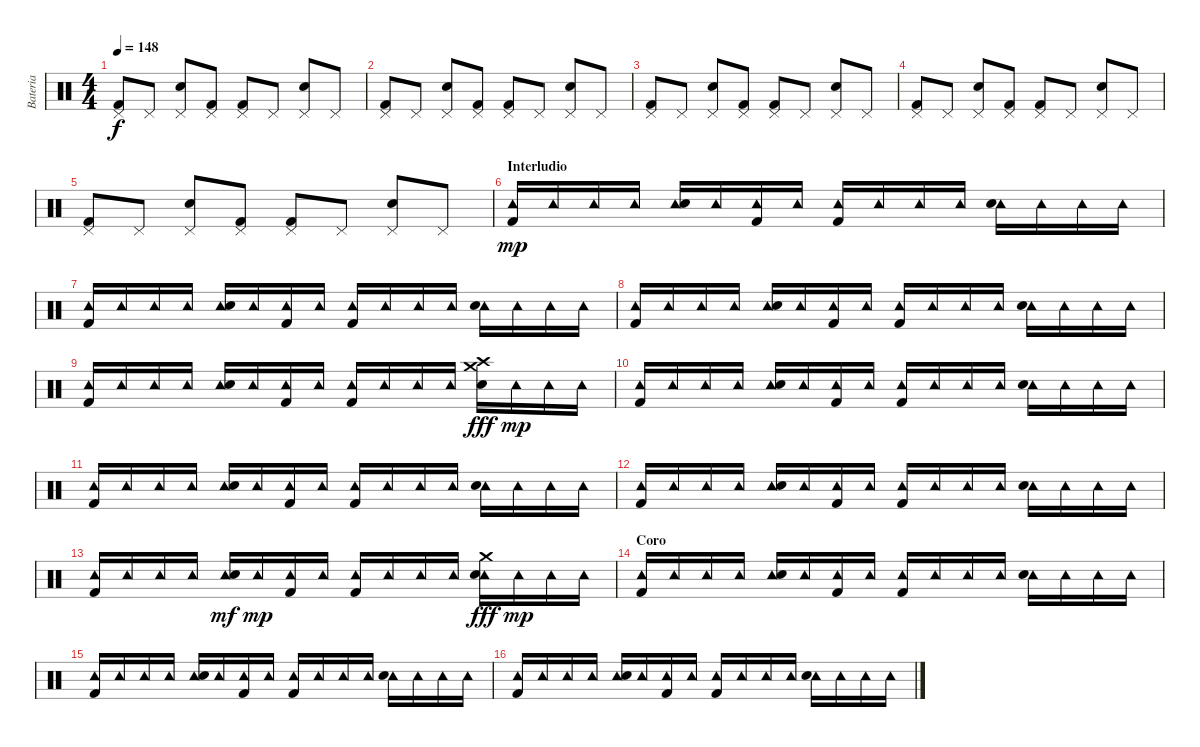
\track ("Bateria" "Bateria") {instrument percussion}
\staff {score}
\articulation defaults
\ts (4 4)
\tempo 148
\clef neutral
\ks c
("Pedal Hi-Hat (hit)" "Kick (hit) 2").8{dy f} "Pedal Hi-Hat (hit)".8 ("Pedal Hi-Hat (hit)" "Snare (hit) 2").8 ("Pedal Hi-Hat (hit)" "Kick (hit) 2").8 ("Pedal Hi-Hat (hit)" "Kick (hit) 2").8 "Pedal Hi-Hat (hit)".8 ("Pedal Hi-Hat (hit)" "Snare (hit) 2").8 "Pedal Hi-Hat (hit)".8 |
("Pedal Hi-Hat (hit)" "Kick (hit) 2").8 "Pedal Hi-Hat (hit)".8 ("Pedal Hi-Hat (hit)" "Snare (hit) 2").8 ("Pedal Hi-Hat (hit)" "Kick (hit) 2").8 ("Pedal Hi-Hat (hit)" "Kick (hit) 2").8 "Pedal Hi-Hat (hit)".8 ("Pedal Hi-Hat (hit)" "Snare (hit) 2").8 "Pedal Hi-Hat (hit)".8 |
("Pedal Hi-Hat (hit)" "Kick (hit) 2").8 "Pedal Hi-Hat (hit)".8 ("Pedal Hi-Hat (hit)" "Snare (hit) 2").8 ("Pedal Hi-Hat (hit)" "Kick (hit) 2").8 ("Pedal Hi-Hat (hit)" "Kick (hit) 2").8 "Pedal Hi-Hat (hit)".8 ("Pedal Hi-Hat (hit)" "Snare (hit) 2").8 "Pedal Hi-Hat (hit)".8 |
("Pedal Hi-Hat (hit)" "Kick (hit) 2").8 "Pedal Hi-Hat (hit)".8 ("Pedal Hi-Hat (hit)" "Snare (hit) 2").8 ("Pedal Hi-Hat (hit)" "Kick (hit) 2").8 ("Pedal Hi-Hat (hit)" "Kick (hit) 2").8 "Pedal Hi-Hat (hit)".8 ("Pedal Hi-Hat (hit)" "Snare (hit) 2").8 "Pedal Hi-Hat (hit)".8 |
("Pedal Hi-Hat (hit)" "Kick (hit) 2").8 "Pedal Hi-Hat (hit)".8 ("Pedal Hi-Hat (hit)" "Snare (hit) 2").8 ("Pedal Hi-Hat (hit)" "Kick (hit) 2").8 ("Pedal Hi-Hat (hit)" "Kick (hit) 2").8 "Pedal Hi-Hat (hit)".8 ("Pedal Hi-Hat (hit)" "Snare (hit) 2").8 "Pedal Hi-Hat (hit)".8 |
\section ("" "Interludio")
("Tambourine (hit)" "Kick (hit) 2").16{dy mp} "Tambourine (hit)".16 "Tambourine (hit)".16 "Tambourine (hit)".16 ("Tambourine (hit)" "Snare (hit) 2").16 "Tambourine (hit)".16 ("Tambourine (hit)" "Kick (hit) 2").16 "Tambourine (hit)".16 ("Tambourine (hit)" "Kick (hit) 2").16 "Tambourine (hit)".16 "Tambourine (hit)".16 "Tambourine (hit)".16 ("Tambourine (hit)" "Snare (hit) 2").16 "Tambourine (hit)".16 "Tambourine (hit)".16 "Tambourine (hit)".16 |
("Tambourine (hit)" "Kick (hit) 2").16 "Tambourine (hit)".16 "Tambourine (hit)".16 "Tambourine (hit)".16 ("Tambourine (hit)" "Snare (hit) 2").16 "Tambourine (hit)".16 ("Tambourine (hit)" "Kick (hit) 2").16 "Tambourine (hit)".16 ("Tambourine (hit)" "Kick (hit) 2").16 "Tambourine (hit)".16 "Tambourine (hit)".16 "Tambourine (hit)".16 ("Tambourine (hit)" "Snare (hit) 2").16 "Tambourine (hit)".16 "Tambourine (hit)".16 "Tambourine (hit)".16 |
("Tambourine (hit)" "Kick (hit) 2").16 "Tambourine (hit)".16 "Tambourine (hit)".16 "Tambourine (hit)".16 ("Tambourine (hit)" "Snare (hit) 2").16 "Tambourine (hit)".16 ("Tambourine (hit)" "Kick (hit) 2").16 "Tambourine (hit)".16 ("Tambourine (hit)" "Kick (hit) 2").16 "Tambourine (hit)".16 "Tambourine (hit)".16 "Tambourine (hit)".16 ("Tambourine (hit)" "Snare (hit) 2").16 "Tambourine (hit)".16 "Tambourine (hit)".16 "Tambourine (hit)".16 |
("Tambourine (hit)" "Kick (hit) 2").16 "Tambourine (hit)".16 "Tambourine (hit)".16 "Tambourine (hit)".16 ("Tambourine (hit)" "Snare (hit) 2").16 "Tambourine (hit)".16 ("Tambourine (hit)" "Kick (hit) 2").16 "Tambourine (hit)".16 ("Tambourine (hit)" "Kick (hit) 2").16 "Tambourine (hit)".16 "Tambourine (hit)".16 "Tambourine (hit)".16 ("Crash high (hit)" "Crash medium (hit)" "Snare (hit) 2").16{dy fff} "Tambourine (hit)".16{dy mp} "Tambourine (hit)".16 "Tambourine (hit)".16 |
("Tambourine (hit)" "Kick (hit) 2").16 "Tambourine (hit)".16 "Tambourine (hit)".16 "Tambourine (hit)".16 ("Tambourine (hit)" "Snare (hit) 2").16 "Tambourine (hit)".16 ("Tambourine (hit)" "Kick (hit) 2").16 "Tambourine (hit)".16 ("Tambourine (hit)" "Kick (hit) 2").16 "Tambourine (hit)".16 "Tambourine (hit)".16 "Tambourine (hit)".16 ("Tambourine (hit)" "Snare (hit) 2").16 "Tambourine (hit)".16 "Tambourine (hit)".16 "Tambourine (hit)".16 |
("Tambourine (hit)" "Kick (hit) 2").16 "Tambourine (hit)".16 "Tambourine (hit)".16 "Tambourine (hit)".16 ("Tambourine (hit)" "Snare (hit) 2").16 "Tambourine (hit)".16 ("Tambourine (hit)" "Kick (hit) 2").16 "Tambourine (hit)".16 ("Tambourine (hit)" "Kick (hit) 2").16 "Tambourine (hit)".16 "Tambourine (hit)".16 "Tambourine (hit)".16 ("Tambourine (hit)" "Snare (hit) 2").16 "Tambourine (hit)".16 "Tambourine (hit)".16 "Tambourine (hit)".16 |
("Tambourine (hit)" "Kick (hit) 2").16 "Tambourine (hit)".16 "Tambourine (hit)".16 "Tambourine (hit)".16 ("Tambourine (hit)" "Snare (hit) 2").16 "Tambourine (hit)".16 ("Tambourine (hit)" "Kick (hit) 2").16 "Tambourine (hit)".16 ("Tambourine (hit)" "Kick (hit) 2").16 "Tambourine (hit)".16 "Tambourine (hit)".16 "Tambourine (hit)".16 ("Tambourine (hit)" "Snare (hit) 2").16 "Tambourine (hit)".16 "Tambourine (hit)".16 "Tambourine (hit)".16 |
("Tambourine (hit)" "Kick (hit) 2").16 "Tambourine (hit)".16 "Tambourine (hit)".16 "Tambourine (hit)".16 ("Tambourine (hit)" "Snare (hit) 2").16{dy mf} "Tambourine (hit)".16{dy mp} ("Tambourine (hit)" "Kick (hit) 2").16 "Tambourine (hit)".16 ("Tambourine (hit)" "Kick (hit) 2").16 "Tambourine (hit)".16 "Tambourine (hit)".16 "Tambourine (hit)".16 ("Tambourine (hit)" "Crash medium (hit)" "Snare (hit) 2").16{dy fff} "Tambourine (hit)".16{dy mp} "Tambourine (hit)".16 "Tambourine (hit)".16 |
\section ("" "Coro")
("Tambourine (hit)" "Kick (hit) 2").16 "Tambourine (hit)".16 "Tambourine (hit)".16 "Tambourine (hit)".16 ("Tambourine (hit)" "Snare (hit) 2").16 "Tambourine (hit)".16 ("Tambourine (hit)" "Kick (hit) 2").16 "Tambourine (hit)".16 ("Tambourine (hit)" "Kick (hit) 2").16 "Tambourine (hit)".16 "Tambourine (hit)".16 "Tambourine (hit)".16 ("Tambourine (hit)" "Snare (hit) 2").16 "Tambourine (hit)".16 "Tambourine (hit)".16 "Tambourine (hit)".16 |
("Tambourine (hit)" "Kick (hit) 2").16 "Tambourine (hit)".16 "Tambourine (hit)".16 "Tambourine (hit)".16 ("Tambourine (hit)" "Snare (hit) 2").16 "Tambourine (hit)".16 ("Tambourine (hit)" "Kick (hit) 2").16 "Tambourine (hit)".16 ("Tambourine (hit)" "Kick (hit) 2").16 "Tambourine (hit)".16 "Tambourine (hit)".16 "Tambourine (hit)".16 ("Tambourine (hit)" "Snare (hit) 2").16 "Tambourine (hit)".16 "Tambourine (hit)".16 "Tambourine (hit)".16 |
("Tambourine (hit)" "Kick (hit) 2").16 "Tambourine (hit)".16 "Tambourine (hit)".16 "Tambourine (hit)".16 ("Tambourine (hit)" "Snare (hit) 2").16 "Tambourine (hit)".16 ("Tambourine (hit)" "Kick (hit) 2").16 "Tambourine (hit)".16 ("Tambourine (hit)" "Kick (hit) 2").16 "Tambourine (hit)".16 "Tambourine (hit)".16 "Tambourine (hit)".16 ("Tambourine (hit)" "Snare (hit) 2").16 "Tambourine (hit)".16 "Tambourine (hit)".16 "Tambourine (hit)".16
